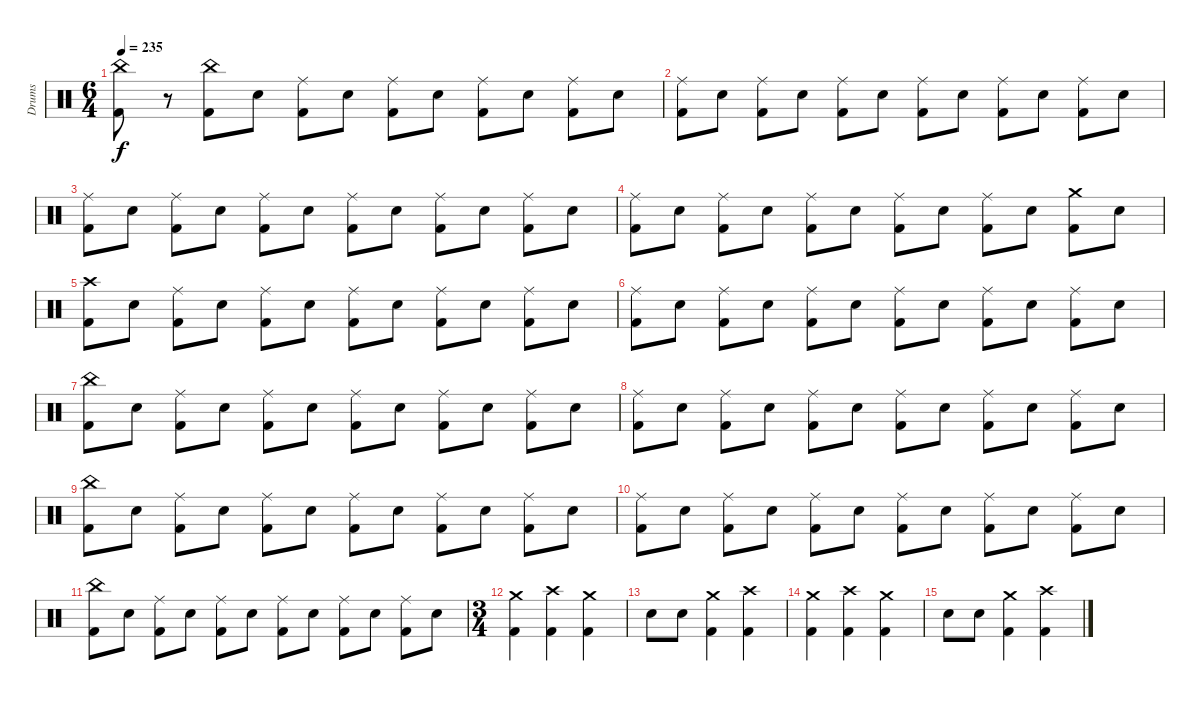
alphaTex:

\track ("Drums" "Drums") {instrument percussion}
\staff {score}
\articulation defaults
\ts (6 4)
\tempo 235
\clef neutral
\ks c
("China (hit)" "Kick (hit) 2").8{dy f} r.8 ("China (hit)" "Kick (hit) 2").8 "Electric Snare (hit)".8 ("Ride (middle)" "Kick (hit) 2").8 "Electric Snare (hit)".8 ("Ride (middle)" "Kick (hit) 2").8 "Electric Snare (hit)".8 ("Ride (middle)" "Kick (hit) 2").8 "Electric Snare (hit)".8 ("Ride (middle)" "Kick (hit) 2").8 "Electric Snare (hit)".8 |
("Ride (middle)" "Kick (hit) 2").8 "Electric Snare (hit)".8 ("Ride (middle)" "Kick (hit) 2").8 "Electric Snare (hit)".8 ("Ride (middle)" "Kick (hit) 2").8 "Electric Snare (hit)".8 ("Ride (middle)" "Kick (hit) 2").8 "Electric Snare (hit)".8 ("Ride (middle)" "Kick (hit) 2").8 "Electric Snare (hit)".8 ("Ride (middle)" "Kick (hit) 2").8 "Electric Snare (hit)".8 |
("Ride (middle)" "Kick (hit) 2").8 "Electric Snare (hit)".8 ("Ride (middle)" "Kick (hit) 2").8 "Electric Snare (hit)".8 ("Ride (middle)" "Kick (hit) 2").8 "Electric Snare (hit)".8 ("Ride (middle)" "Kick (hit) 2").8 "Electric Snare (hit)".8 ("Ride (middle)" "Kick (hit) 2").8 "Electric Snare (hit)".8 ("Ride (middle)" "Kick (hit) 2").8 "Electric Snare (hit)".8 |
("Ride (middle)" "Kick (hit) 2").8 "Electric Snare (hit)".8 ("Ride (middle)" "Kick (hit) 2").8 "Electric Snare (hit)".8 ("Ride (middle)" "Kick (hit) 2").8 "Electric Snare (hit)".8 ("Ride (middle)" "Kick (hit) 2").8 "Electric Snare (hit)".8 ("Ride (middle)" "Kick (hit) 2").8 "Electric Snare (hit)".8 ("Crash medium (hit)" "Kick (hit) 2").8 "Electric Snare (hit)".8 |
("Crash high (hit)" "Kick (hit) 2").8 "Electric Snare (hit)".8 ("Ride (middle)" "Kick (hit) 2").8 "Electric Snare (hit)".8 ("Ride (middle)" "Kick (hit) 2").8 "Electric Snare (hit)".8 ("Ride (middle)" "Kick (hit) 2").8 "Electric Snare (hit)".8 ("Ride (middle)" "Kick (hit) 2").8 "Electric Snare (hit)".8 ("Ride (middle)" "Kick (hit) 2").8 "Electric Snare (hit)".8 |
("Ride (middle)" "Kick (hit) 2").8 "Electric Snare (hit)".8 ("Ride (middle)" "Kick (hit) 2").8 "Electric Snare (hit)".8 ("Ride (middle)" "Kick (hit) 2").8 "Electric Snare (hit)".8 ("Ride (middle)" "Kick (hit) 2").8 "Electric Snare (hit)".8 ("Ride (middle)" "Kick (hit) 2").8 "Electric Snare (hit)".8 ("Ride (middle)" "Kick (hit) 2").8 "Electric Snare (hit)".8 |
("China (hit)" "Kick (hit) 2").8 "Electric Snare (hit)".8 ("Ride (middle)" "Kick (hit) 2").8 "Electric Snare (hit)".8 ("Ride (middle)" "Kick (hit) 2").8 "Electric Snare (hit)".8 ("Ride (middle)" "Kick (hit) 2").8 "Electric Snare (hit)".8 ("Ride (middle)" "Kick (hit) 2").8 "Electric Snare (hit)".8 ("Ride (middle)" "Kick (hit) 2").8 "Electric Snare (hit)".8 |
("Ride (middle)" "Kick (hit) 2").8 "Electric Snare (hit)".8 ("Ride (middle)" "Kick (hit) 2").8 "Electric Snare (hit)".8 ("Ride (middle)" "Kick (hit) 2").8 "Electric Snare (hit)".8 ("Ride (middle)" "Kick (hit) 2").8 "Electric Snare (hit)".8 ("Ride (middle)" "Kick (hit) 2").8 "Electric Snare (hit)".8 ("Ride (middle)" "Kick (hit) 2").8 "Electric Snare (hit)".8 |
("China (hit)" "Kick (hit) 2").8 "Electric Snare (hit)".8 ("Ride (middle)" "Kick (hit) 2").8 "Electric Snare (hit)".8 ("Ride (middle)" "Kick (hit) 2").8 "Electric Snare (hit)".8 ("Ride (middle)" "Kick (hit) 2").8 "Electric Snare (hit)".8 ("Ride (middle)" "Kick (hit) 2").8 "Electric Snare (hit)".8 ("Ride (middle)" "Kick (hit) 2").8 "Electric Snare (hit)".8 |
("Ride (middle)" "Kick (hit) 2").8 "Electric Snare (hit)".8 ("Ride (middle)" "Kick (hit) 2").8 "Electric Snare (hit)".8 ("Ride (middle)" "Kick (hit) 2").8 "Electric Snare (hit)".8 ("Ride (middle)" "Kick (hit) 2").8 "Electric Snare (hit)".8 ("Ride (middle)" "Kick (hit) 2").8 "Electric Snare (hit)".8 ("Ride (middle)" "Kick (hit) 2").8 "Electric Snare (hit)".8 |
("China (hit)" "Kick (hit) 2").8 "Electric Snare (hit)".8 ("Ride (middle)" "Kick (hit) 2").8 "Electric Snare (hit)".8 ("Ride (middle)" "Kick (hit) 2").8 "Electric Snare (hit)".8 ("Ride (middle)" "Kick (hit) 2").8 "Electric Snare (hit)".8 ("Ride (middle)" "Kick (hit) 2").8 "Electric Snare (hit)".8 ("Ride (middle)" "Kick (hit) 2").8 "Electric Snare (hit)".8 |
\ts (3 4)
("Crash medium (hit)" "Kick (hit) 2").4 ("Crash high (hit)" "Kick (hit) 2").4 ("Crash medium (hit)" "Kick (hit) 2").4 |
"Electric Snare (hit)".8 "Electric Snare (hit)".8 ("Crash medium (hit)" "Kick (hit) 2").4 ("Crash high (hit)" "Kick (hit) 2").4 |
("Crash medium (hit)" "Kick (hit) 2").4 ("Crash high (hit)" "Kick (hit) 2").4 ("Crash medium (hit)" "Kick (hit) 2").4 |
"Electric Snare (hit)".8 "Electric Snare (hit)".8 ("Crash medium (hit)" "Kick (hit) 2").4 ("Crash high (hit)" "Kick (hit) 2").4
